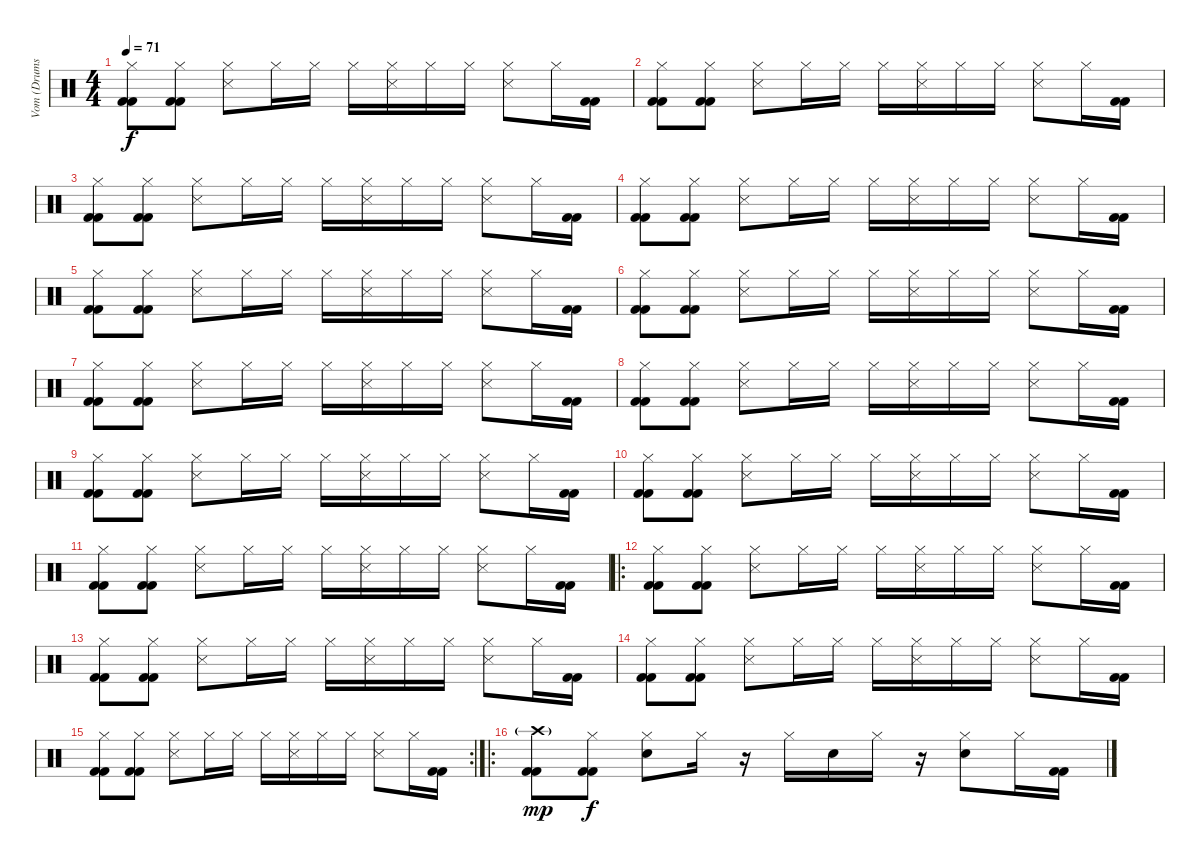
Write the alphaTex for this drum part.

\track ("Vom (Drums)" "Vom (Drums") {instrument percussion}
\staff {score}
\articulation defaults
\ts (4 4)
\tempo 71
\clef neutral
\ks c
("Hi-Hat (closed)" "Kick (hit) 2" "Kick (hit) 2").8{dy f} ("Hi-Hat (closed)" "Kick (hit) 2" "Kick (hit) 2").8 ("Hi-Hat (closed)" "Snare (side stick) 3").8 "Hi-Hat (closed)".16 "Hi-Hat (closed)".16 "Hi-Hat (closed)".16 ("Hi-Hat (closed)" "Snare (side stick) 3").16 "Hi-Hat (closed)".16 "Hi-Hat (closed)".16 ("Hi-Hat (closed)" "Snare (side stick) 3").8 "Hi-Hat (closed)".16 ("Kick (hit) 2" "Kick (hit) 2").16 |
("Hi-Hat (closed)" "Kick (hit) 2" "Kick (hit) 2").8 ("Hi-Hat (closed)" "Kick (hit) 2" "Kick (hit) 2").8 ("Hi-Hat (closed)" "Snare (side stick) 3").8 "Hi-Hat (closed)".16 "Hi-Hat (closed)".16 "Hi-Hat (closed)".16 ("Hi-Hat (closed)" "Snare (side stick) 3").16 "Hi-Hat (closed)".16 "Hi-Hat (closed)".16 ("Hi-Hat (closed)" "Snare (side stick) 3").8 "Hi-Hat (closed)".16 ("Kick (hit) 2" "Kick (hit) 2").16 |
("Hi-Hat (closed)" "Kick (hit) 2" "Kick (hit) 2").8 ("Hi-Hat (closed)" "Kick (hit) 2" "Kick (hit) 2").8 ("Hi-Hat (closed)" "Snare (side stick) 3").8 "Hi-Hat (closed)".16 "Hi-Hat (closed)".16 "Hi-Hat (closed)".16 ("Hi-Hat (closed)" "Snare (side stick) 3").16 "Hi-Hat (closed)".16 "Hi-Hat (closed)".16 ("Hi-Hat (closed)" "Snare (side stick) 3").8 "Hi-Hat (closed)".16 ("Kick (hit) 2" "Kick (hit) 2").16 |
("Hi-Hat (closed)" "Kick (hit) 2" "Kick (hit) 2").8 ("Hi-Hat (closed)" "Kick (hit) 2" "Kick (hit) 2").8 ("Hi-Hat (closed)" "Snare (side stick) 3").8 "Hi-Hat (closed)".16 "Hi-Hat (closed)".16 "Hi-Hat (closed)".16 ("Hi-Hat (closed)" "Snare (side stick) 3").16 "Hi-Hat (closed)".16 "Hi-Hat (closed)".16 ("Hi-Hat (closed)" "Snare (side stick) 3").8 "Hi-Hat (closed)".16 ("Kick (hit) 2" "Kick (hit) 2").16 |
("Hi-Hat (closed)" "Kick (hit) 2" "Kick (hit) 2").8 ("Hi-Hat (closed)" "Kick (hit) 2" "Kick (hit) 2").8 ("Hi-Hat (closed)" "Snare (side stick) 3").8 "Hi-Hat (closed)".16 "Hi-Hat (closed)".16 "Hi-Hat (closed)".16 ("Hi-Hat (closed)" "Snare (side stick) 3").16 "Hi-Hat (closed)".16 "Hi-Hat (closed)".16 ("Hi-Hat (closed)" "Snare (side stick) 3").8 "Hi-Hat (closed)".16 ("Kick (hit) 2" "Kick (hit) 2").16 |
("Hi-Hat (closed)" "Kick (hit) 2" "Kick (hit) 2").8 ("Hi-Hat (closed)" "Kick (hit) 2" "Kick (hit) 2").8 ("Hi-Hat (closed)" "Snare (side stick) 3").8 "Hi-Hat (closed)".16 "Hi-Hat (closed)".16 "Hi-Hat (closed)".16 ("Hi-Hat (closed)" "Snare (side stick) 3").16 "Hi-Hat (closed)".16 "Hi-Hat (closed)".16 ("Hi-Hat (closed)" "Snare (side stick) 3").8 "Hi-Hat (closed)".16 ("Kick (hit) 2" "Kick (hit) 2").16 |
("Hi-Hat (closed)" "Kick (hit) 2" "Kick (hit) 2").8 ("Hi-Hat (closed)" "Kick (hit) 2" "Kick (hit) 2").8 ("Hi-Hat (closed)" "Snare (side stick) 3").8 "Hi-Hat (closed)".16 "Hi-Hat (closed)".16 "Hi-Hat (closed)".16 ("Hi-Hat (closed)" "Snare (side stick) 3").16 "Hi-Hat (closed)".16 "Hi-Hat (closed)".16 ("Hi-Hat (closed)" "Snare (side stick) 3").8 "Hi-Hat (closed)".16 ("Kick (hit) 2" "Kick (hit) 2").16 |
("Hi-Hat (closed)" "Kick (hit) 2" "Kick (hit) 2").8 ("Hi-Hat (closed)" "Kick (hit) 2" "Kick (hit) 2").8 ("Hi-Hat (closed)" "Snare (side stick) 3").8 "Hi-Hat (closed)".16 "Hi-Hat (closed)".16 "Hi-Hat (closed)".16 ("Hi-Hat (closed)" "Snare (side stick) 3").16 "Hi-Hat (closed)".16 "Hi-Hat (closed)".16 ("Hi-Hat (closed)" "Snare (side stick) 3").8 "Hi-Hat (closed)".16 ("Kick (hit) 2" "Kick (hit) 2").16 |
("Hi-Hat (closed)" "Kick (hit) 2" "Kick (hit) 2").8 ("Hi-Hat (closed)" "Kick (hit) 2" "Kick (hit) 2").8 ("Hi-Hat (closed)" "Snare (side stick) 3").8 "Hi-Hat (closed)".16 "Hi-Hat (closed)".16 "Hi-Hat (closed)".16 ("Hi-Hat (closed)" "Snare (side stick) 3").16 "Hi-Hat (closed)".16 "Hi-Hat (closed)".16 ("Hi-Hat (closed)" "Snare (side stick) 3").8 "Hi-Hat (closed)".16 ("Kick (hit) 2" "Kick (hit) 2").16 |
("Hi-Hat (closed)" "Kick (hit) 2" "Kick (hit) 2").8 ("Hi-Hat (closed)" "Kick (hit) 2" "Kick (hit) 2").8 ("Hi-Hat (closed)" "Snare (side stick) 3").8 "Hi-Hat (closed)".16 "Hi-Hat (closed)".16 "Hi-Hat (closed)".16 ("Hi-Hat (closed)" "Snare (side stick) 3").16 "Hi-Hat (closed)".16 "Hi-Hat (closed)".16 ("Hi-Hat (closed)" "Snare (side stick) 3").8 "Hi-Hat (closed)".16 ("Kick (hit) 2" "Kick (hit) 2").16 |
("Hi-Hat (closed)" "Kick (hit) 2" "Kick (hit) 2").8 ("Hi-Hat (closed)" "Kick (hit) 2" "Kick (hit) 2").8 ("Hi-Hat (closed)" "Snare (side stick) 3").8 "Hi-Hat (closed)".16 "Hi-Hat (closed)".16 "Hi-Hat (closed)".16 ("Hi-Hat (closed)" "Snare (side stick) 3").16 "Hi-Hat (closed)".16 "Hi-Hat (closed)".16 ("Hi-Hat (closed)" "Snare (side stick) 3").8 "Hi-Hat (closed)".16 ("Kick (hit) 2" "Kick (hit) 2").16 |
\ro
("Hi-Hat (closed)" "Kick (hit) 2" "Kick (hit) 2").8 ("Hi-Hat (closed)" "Kick (hit) 2" "Kick (hit) 2").8 ("Hi-Hat (closed)" "Snare (side stick) 3").8 "Hi-Hat (closed)".16 "Hi-Hat (closed)".16 "Hi-Hat (closed)".16 ("Hi-Hat (closed)" "Snare (side stick) 3").16 "Hi-Hat (closed)".16 "Hi-Hat (closed)".16 ("Hi-Hat (closed)" "Snare (side stick) 3").8 "Hi-Hat (closed)".16 ("Kick (hit) 2" "Kick (hit) 2").16 |
("Hi-Hat (closed)" "Kick (hit) 2" "Kick (hit) 2").8 ("Hi-Hat (closed)" "Kick (hit) 2" "Kick (hit) 2").8 ("Hi-Hat (closed)" "Snare (side stick) 3").8 "Hi-Hat (closed)".16 "Hi-Hat (closed)".16 "Hi-Hat (closed)".16 ("Hi-Hat (closed)" "Snare (side stick) 3").16 "Hi-Hat (closed)".16 "Hi-Hat (closed)".16 ("Hi-Hat (closed)" "Snare (side stick) 3").8 "Hi-Hat (closed)".16 ("Kick (hit) 2" "Kick (hit) 2").16 |
("Hi-Hat (closed)" "Kick (hit) 2" "Kick (hit) 2").8 ("Hi-Hat (closed)" "Kick (hit) 2" "Kick (hit) 2").8 ("Hi-Hat (closed)" "Snare (side stick) 3").8 "Hi-Hat (closed)".16 "Hi-Hat (closed)".16 "Hi-Hat (closed)".16 ("Hi-Hat (closed)" "Snare (side stick) 3").16 "Hi-Hat (closed)".16 "Hi-Hat (closed)".16 ("Hi-Hat (closed)" "Snare (side stick) 3").8 "Hi-Hat (closed)".16 ("Kick (hit) 2" "Kick (hit) 2").16 |
\rc 2
("Hi-Hat (closed)" "Kick (hit) 2" "Kick (hit) 2").8 ("Hi-Hat (closed)" "Kick (hit) 2" "Kick (hit) 2").8 ("Hi-Hat (closed)" "Snare (side stick) 3").8 "Hi-Hat (closed)".16 "Hi-Hat (closed)".16 "Hi-Hat (closed)".16 ("Hi-Hat (closed)" "Snare (side stick) 3").16 "Hi-Hat (closed)".16 "Hi-Hat (closed)".16 ("Hi-Hat (closed)" "Snare (side stick) 3").8 "Hi-Hat (closed)".16 ("Kick (hit) 2" "Kick (hit) 2").16 |
\ro
("Crash high (hit)"{g} "Kick (hit) 2" "Kick (hit) 2").8{dy mp} ("Hi-Hat (closed)" "Kick (hit) 2" "Kick (hit) 2").8{dy f} ("Hi-Hat (closed)" "Electric Snare (hit)").8 "Hi-Hat (closed)".16 r.16 "Hi-Hat (closed)".16 "Electric Snare (hit)".16 "Hi-Hat (closed)".16 r.16 ("Hi-Hat (closed)" "Electric Snare (hit)").8 "Hi-Hat (closed)".16 ("Kick (hit) 2" "Kick (hit) 2").16
